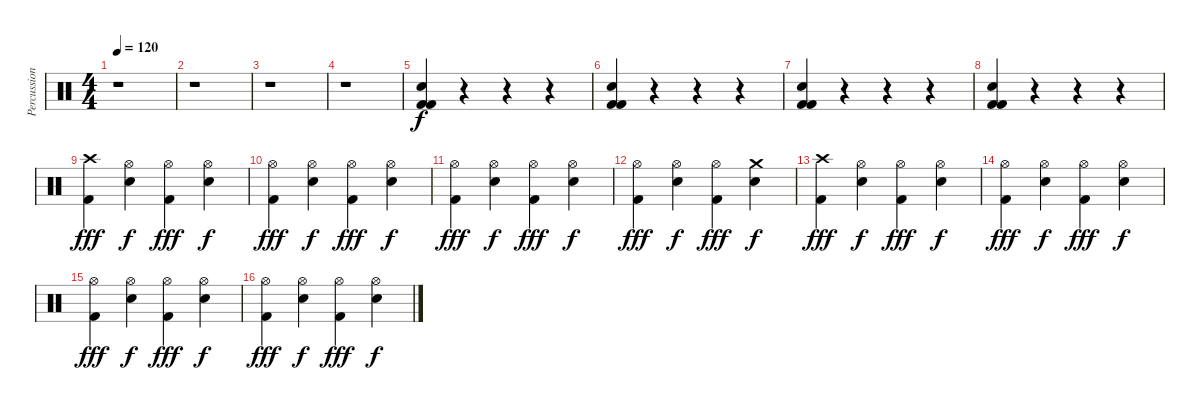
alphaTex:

\track ("Percussion" "Percussion") {instrument percussion}
\staff {score}
\articulation defaults
\ts (4 4)
\tempo 120
\clef neutral
\ks c
r.1{dy f} |
r.1 |
r.1 |
r.1 |
("Snare (hit) 2" "Kick (hit) 2" "Kick (hit) 2").4 r.4 r.4 r.4 |
("Snare (hit) 2" "Kick (hit) 2" "Kick (hit) 2").4 r.4 r.4 r.4 |
("Snare (hit) 2" "Kick (hit) 2" "Kick (hit) 2").4 r.4 r.4 r.4 |
("Snare (hit) 2" "Kick (hit) 2" "Kick (hit) 2").4 r.4 r.4 r.4 |
("Crash high (hit)" "Kick (hit) 2").4{dy fff} ("Hi-Hat (open)" "Snare (hit) 2").4{dy f} ("Hi-Hat (open)" "Kick (hit) 2").4{dy fff} ("Hi-Hat (open)" "Snare (hit) 2").4{dy f} |
("Hi-Hat (open)" "Kick (hit) 2").4{dy fff} ("Hi-Hat (open)" "Snare (hit) 2").4{dy f} ("Hi-Hat (open)" "Kick (hit) 2").4{dy fff} ("Hi-Hat (open)" "Snare (hit) 2").4{dy f} |
("Hi-Hat (open)" "Kick (hit) 2").4{dy fff} ("Hi-Hat (open)" "Snare (hit) 2").4{dy f} ("Hi-Hat (open)" "Kick (hit) 2").4{dy fff} ("Hi-Hat (open)" "Snare (hit) 2").4{dy f} |
("Hi-Hat (open)" "Kick (hit) 2").4{dy fff} ("Hi-Hat (open)" "Snare (hit) 2").4{dy f} ("Hi-Hat (open)" "Kick (hit) 2").4{dy fff} ("Crash medium (hit)" "Snare (hit) 2").4{dy f} |
("Crash high (hit)" "Kick (hit) 2").4{dy fff} ("Hi-Hat (open)" "Snare (hit) 2").4{dy f} ("Hi-Hat (open)" "Kick (hit) 2").4{dy fff} ("Hi-Hat (open)" "Snare (hit) 2").4{dy f} |
("Hi-Hat (open)" "Kick (hit) 2").4{dy fff} ("Hi-Hat (open)" "Snare (hit) 2").4{dy f} ("Hi-Hat (open)" "Kick (hit) 2").4{dy fff} ("Hi-Hat (open)" "Snare (hit) 2").4{dy f} |
("Hi-Hat (open)" "Kick (hit) 2").4{dy fff} ("Hi-Hat (open)" "Snare (hit) 2").4{dy f} ("Hi-Hat (open)" "Kick (hit) 2").4{dy fff} ("Hi-Hat (open)" "Snare (hit) 2").4{dy f} |
("Hi-Hat (open)" "Kick (hit) 2").4{dy fff} ("Hi-Hat (open)" "Snare (hit) 2").4{dy f} ("Hi-Hat (open)" "Kick (hit) 2").4{dy fff} ("Hi-Hat (open)" "Snare (hit) 2").4{dy f}
